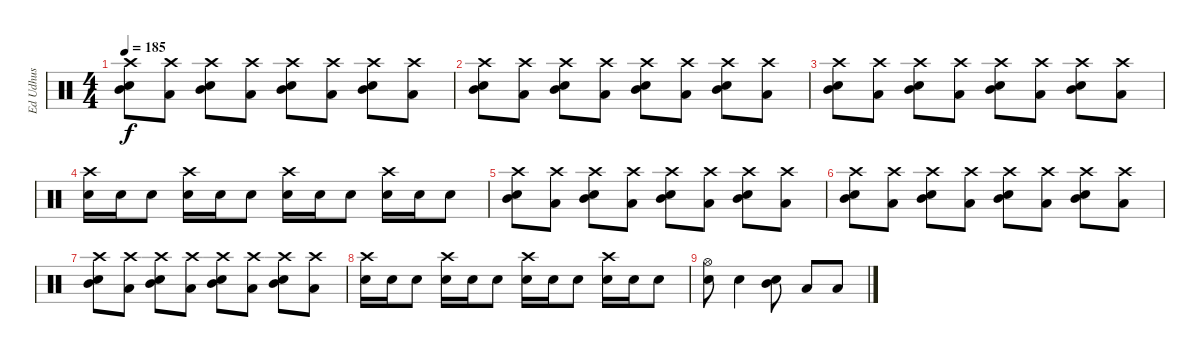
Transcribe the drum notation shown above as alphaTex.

\track ("Ed Udhus" "Ed Udhus") {instrument percussion}
\staff {score}
\articulation defaults
\ts (4 4)
\tempo 185
\clef neutral
\ks c
("Electric Snare (hit)" "Mid Tom (hit)" "Crash high (hit)").8{dy f} ("Low Floor Tom (hit)" "Crash high (hit)").8 ("Electric Snare (hit)" "Mid Tom (hit)" "Crash high (hit)").8 ("Low Floor Tom (hit)" "Crash high (hit)").8 ("Electric Snare (hit)" "Mid Tom (hit)" "Crash high (hit)").8 ("Low Floor Tom (hit)" "Crash high (hit)").8 ("Electric Snare (hit)" "Mid Tom (hit)" "Crash high (hit)").8 ("Low Floor Tom (hit)" "Crash high (hit)").8 |
("Electric Snare (hit)" "Mid Tom (hit)" "Crash high (hit)").8 ("Low Floor Tom (hit)" "Crash high (hit)").8 ("Electric Snare (hit)" "Mid Tom (hit)" "Crash high (hit)").8 ("Low Floor Tom (hit)" "Crash high (hit)").8 ("Electric Snare (hit)" "Mid Tom (hit)" "Crash high (hit)").8 ("Low Floor Tom (hit)" "Crash high (hit)").8 ("Electric Snare (hit)" "Mid Tom (hit)" "Crash high (hit)").8 ("Low Floor Tom (hit)" "Crash high (hit)").8 |
("Electric Snare (hit)" "Mid Tom (hit)" "Crash high (hit)").8 ("Low Floor Tom (hit)" "Crash high (hit)").8 ("Electric Snare (hit)" "Mid Tom (hit)" "Crash high (hit)").8 ("Low Floor Tom (hit)" "Crash high (hit)").8 ("Electric Snare (hit)" "Mid Tom (hit)" "Crash high (hit)").8 ("Low Floor Tom (hit)" "Crash high (hit)").8 ("Electric Snare (hit)" "Mid Tom (hit)" "Crash high (hit)").8 ("Low Floor Tom (hit)" "Crash high (hit)").8 |
("Snare (hit) 2" "Crash high (hit)").16 "Snare (hit) 2".16 "Snare (hit) 2".8 ("Snare (hit) 2" "Crash high (hit)").16 "Snare (hit) 2".16 "Snare (hit) 2".8 ("Electric Snare (hit)" "Crash high (hit)").16 "Electric Snare (hit)".16 "Electric Snare (hit)".8 ("Electric Snare (hit)" "Crash high (hit)").16 "Electric Snare (hit)".16 "Electric Snare (hit)".8 |
("Electric Snare (hit)" "Mid Tom (hit)" "Crash high (hit)").8 ("Low Floor Tom (hit)" "Crash high (hit)").8 ("Electric Snare (hit)" "Mid Tom (hit)" "Crash high (hit)").8 ("Low Floor Tom (hit)" "Crash high (hit)").8 ("Electric Snare (hit)" "Mid Tom (hit)" "Crash high (hit)").8 ("Low Floor Tom (hit)" "Crash high (hit)").8 ("Electric Snare (hit)" "Mid Tom (hit)" "Crash high (hit)").8 ("Low Floor Tom (hit)" "Crash high (hit)").8 |
("Electric Snare (hit)" "Mid Tom (hit)" "Crash high (hit)").8 ("Low Floor Tom (hit)" "Crash high (hit)").8 ("Electric Snare (hit)" "Mid Tom (hit)" "Crash high (hit)").8 ("Low Floor Tom (hit)" "Crash high (hit)").8 ("Electric Snare (hit)" "Mid Tom (hit)" "Crash high (hit)").8 ("Low Floor Tom (hit)" "Crash high (hit)").8 ("Electric Snare (hit)" "Mid Tom (hit)" "Crash high (hit)").8 ("Low Floor Tom (hit)" "Crash high (hit)").8 |
("Electric Snare (hit)" "Mid Tom (hit)" "Crash high (hit)").8 ("Low Floor Tom (hit)" "Crash high (hit)").8 ("Electric Snare (hit)" "Mid Tom (hit)" "Crash high (hit)").8 ("Low Floor Tom (hit)" "Crash high (hit)").8 ("Electric Snare (hit)" "Mid Tom (hit)" "Crash high (hit)").8 ("Low Floor Tom (hit)" "Crash high (hit)").8 ("Electric Snare (hit)" "Mid Tom (hit)" "Crash high (hit)").8 ("Low Floor Tom (hit)" "Crash high (hit)").8 |
("Snare (hit) 2" "Crash high (hit)").16 "Snare (hit) 2".16 "Snare (hit) 2".8 ("Snare (hit) 2" "Crash high (hit)").16 "Snare (hit) 2".16 "Snare (hit) 2".8 ("Electric Snare (hit)" "Crash high (hit)").16 "Electric Snare (hit)".16 "Electric Snare (hit)".8 ("Electric Snare (hit)" "Crash high (hit)").16 "Electric Snare (hit)".16 "Electric Snare (hit)".8 |
("Hi-Hat (open)" "Snare (hit) 2").8 "Snare (hit) 2".4 ("Electric Snare (hit)" "Mid Tom (hit)").8 "Low Floor Tom (hit)".8 "Low Floor Tom (hit)".8
